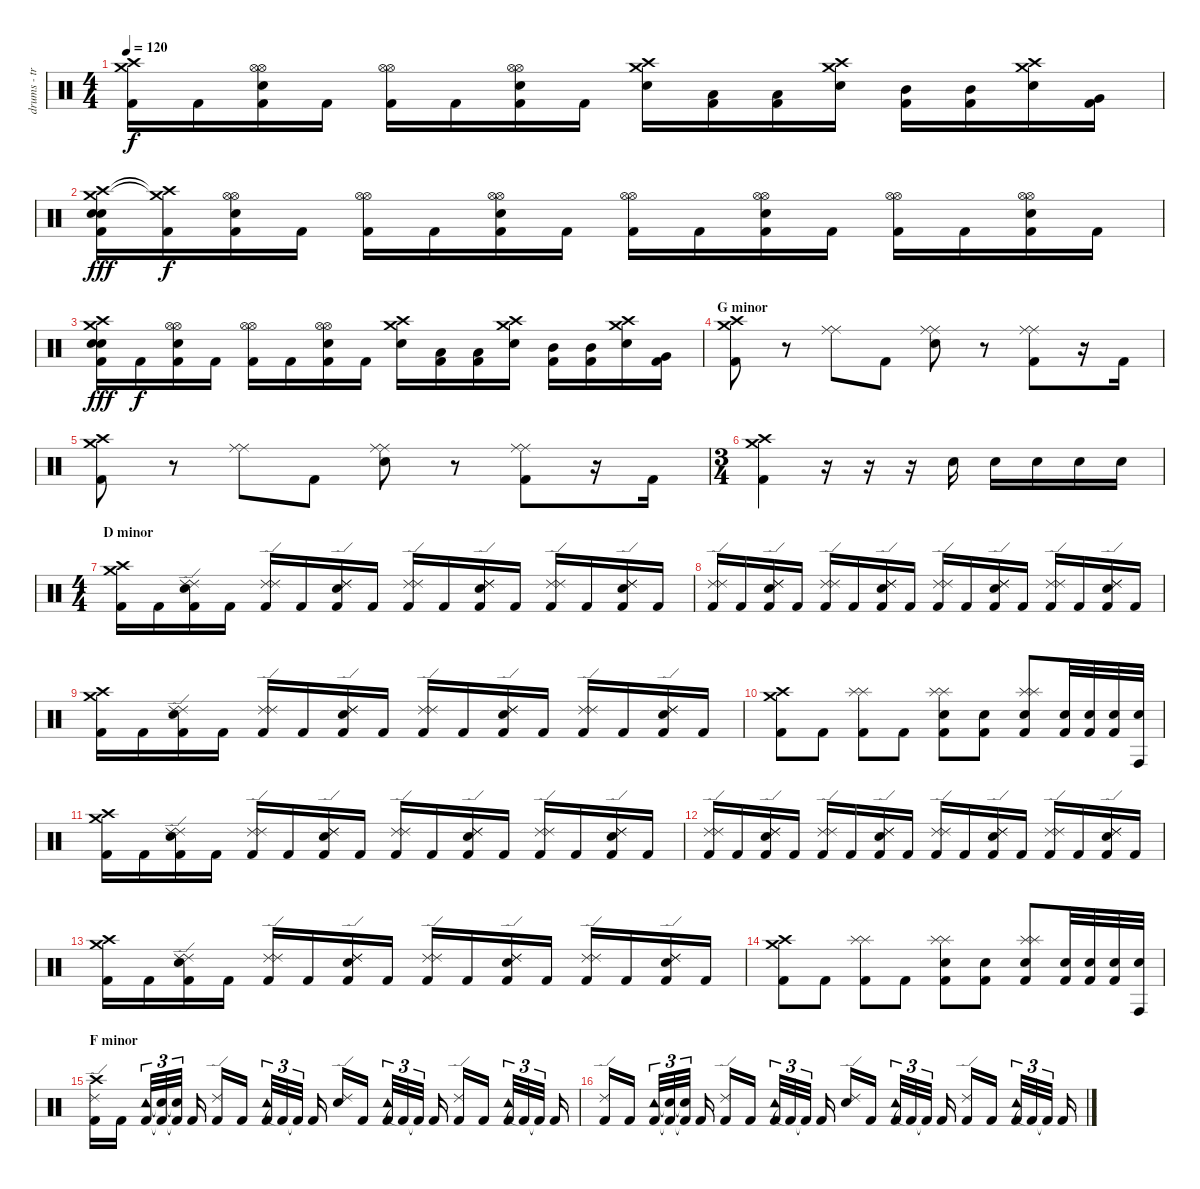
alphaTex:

\track ("drums - trash and prog sections" "drums - tr") {instrument percussion}
\staff {score}
\articulation defaults
\ts (4 4)
\tempo 120
\clef neutral
\ks c
("Crash medium (hit)" "Crash high (hit)" "Kick (hit) 2").16{dy f} "Kick (hit) 2".16 ("Hi-Hat (open)" "Hi-Hat (open)" "Snare (hit) 2" "Kick (hit) 2").16 "Kick (hit) 2".16 ("Hi-Hat (open)" "Hi-Hat (open)" "Kick (hit) 2").16 "Kick (hit) 2".16 ("Hi-Hat (open)" "Hi-Hat (open)" "Snare (hit) 2" "Kick (hit) 2").16 "Kick (hit) 2".16 ("Crash medium (hit)" "Crash high (hit)" "Snare (hit) 2").16 ("Low Tom (hit)" "Kick (hit) 2").16 ("Low Tom (hit)" "Kick (hit) 2").16 ("Crash medium (hit)" "Crash high (hit)" "Snare (hit) 2").16 ("Mid Tom (hit)" "Kick (hit) 2").16 ("Mid Tom (hit)" "Kick (hit) 2").16 ("Crash medium (hit)" "Crash high (hit)" "Snare (hit) 2").16 ("Very Low Tom (hit)" "Kick (hit) 2").16 |
("Crash medium (hit)" "Crash high (hit)" "Snare (hit) 2" "Electric Snare (hit)" "Kick (hit) 2").16{dy fff} ("Crash medium (hit)"{t} "Crash high (hit)"{t} "Kick (hit) 2").16{dy f} ("Hi-Hat (open)" "Hi-Hat (open)" "Snare (hit) 2" "Kick (hit) 2").16 "Kick (hit) 2".16 ("Hi-Hat (open)" "Hi-Hat (open)" "Kick (hit) 2").16 "Kick (hit) 2".16 ("Hi-Hat (open)" "Hi-Hat (open)" "Snare (hit) 2" "Kick (hit) 2").16 "Kick (hit) 2".16 ("Hi-Hat (open)" "Hi-Hat (open)" "Kick (hit) 2").16 "Kick (hit) 2".16 ("Hi-Hat (open)" "Hi-Hat (open)" "Snare (hit) 2" "Kick (hit) 2").16 "Kick (hit) 2".16 ("Hi-Hat (open)" "Hi-Hat (open)" "Kick (hit) 2").16 "Kick (hit) 2".16 ("Hi-Hat (open)" "Hi-Hat (open)" "Snare (hit) 2" "Kick (hit) 2").16 "Kick (hit) 2".16 |
("Crash medium (hit)" "Crash high (hit)" "Snare (hit) 2" "Electric Snare (hit)" "Kick (hit) 2").16{dy fff} "Kick (hit) 2".16{dy f} ("Hi-Hat (open)" "Hi-Hat (open)" "Snare (hit) 2" "Kick (hit) 2").16 "Kick (hit) 2".16 ("Hi-Hat (open)" "Hi-Hat (open)" "Kick (hit) 2").16 "Kick (hit) 2".16 ("Hi-Hat (open)" "Hi-Hat (open)" "Snare (hit) 2" "Kick (hit) 2").16 "Kick (hit) 2".16 ("Crash medium (hit)" "Crash high (hit)" "Snare (hit) 2").16 ("Low Tom (hit)" "Kick (hit) 2").16 ("Low Tom (hit)" "Kick (hit) 2").16 ("Crash medium (hit)" "Crash high (hit)" "Snare (hit) 2").16 ("Mid Tom (hit)" "Kick (hit) 2").16 ("Mid Tom (hit)" "Kick (hit) 2").16 ("Crash medium (hit)" "Crash high (hit)" "Snare (hit) 2").16 ("Very Low Tom (hit)" "Kick (hit) 2").16 |
\section ("" "G minor")
("Crash medium (hit)" "Crash high (hit)" "Kick (hit) 2").8 r.8 ("Ride (middle)" "Ride (middle)").8 "Kick (hit) 2".8 ("Ride (middle)" "Ride (middle)" "Snare (hit) 2").8 r.8 ("Ride (middle)" "Ride (middle)" "Kick (hit) 2").8 r.16 "Kick (hit) 2".16 |
("Crash medium (hit)" "Crash high (hit)" "Kick (hit) 2").8 r.8 ("Ride (middle)" "Ride (middle)").8 "Kick (hit) 2".8 ("Ride (middle)" "Ride (middle)" "Snare (hit) 2").8 r.8 ("Ride (middle)" "Ride (middle)" "Kick (hit) 2").8 r.16 "Kick (hit) 2".16 |
\ts (3 4)
("Crash medium (hit)" "Crash high (hit)" "Kick (hit) 2").4 r.16 r.16 r.16 "Snare (hit) 2".16 "Snare (hit) 2".16 "Snare (hit) 2".16 "Snare (hit) 2".16 "Snare (hit) 2".16 |
\ts (4 4)
\section ("" "D minor")
("Crash medium (hit)" "Crash high (hit)" "Kick (hit) 2").16 "Kick (hit) 2".16 ("Ride (edge) 2" "Ride (edge) 2" "Snare (hit) 2" "Kick (hit) 2").16 "Kick (hit) 2".16 ("Ride (edge) 2" "Ride (edge) 2" "Kick (hit) 2").16 "Kick (hit) 2".16 ("Ride (edge) 2" "Ride (edge) 2" "Snare (hit) 2" "Kick (hit) 2").16 "Kick (hit) 2".16 ("Ride (edge) 2" "Ride (edge) 2" "Kick (hit) 2").16 "Kick (hit) 2".16 ("Ride (edge) 2" "Ride (edge) 2" "Snare (hit) 2" "Kick (hit) 2").16 "Kick (hit) 2".16 ("Ride (edge) 2" "Ride (edge) 2" "Kick (hit) 2").16 "Kick (hit) 2".16 ("Ride (edge) 2" "Ride (edge) 2" "Snare (hit) 2" "Kick (hit) 2").16 "Kick (hit) 2".16 |
("Ride (edge) 2" "Ride (edge) 2" "Kick (hit) 2").16 "Kick (hit) 2".16 ("Ride (edge) 2" "Ride (edge) 2" "Snare (hit) 2" "Kick (hit) 2").16 "Kick (hit) 2".16 ("Ride (edge) 2" "Ride (edge) 2" "Kick (hit) 2").16 "Kick (hit) 2".16 ("Ride (edge) 2" "Ride (edge) 2" "Snare (hit) 2" "Kick (hit) 2").16 "Kick (hit) 2".16 ("Ride (edge) 2" "Ride (edge) 2" "Kick (hit) 2").16 "Kick (hit) 2".16 ("Ride (edge) 2" "Ride (edge) 2" "Snare (hit) 2" "Kick (hit) 2").16 "Kick (hit) 2".16 ("Ride (edge) 2" "Ride (edge) 2" "Kick (hit) 2").16 "Kick (hit) 2".16 ("Ride (edge) 2" "Ride (edge) 2" "Snare (hit) 2" "Kick (hit) 2").16 "Kick (hit) 2".16 |
("Crash medium (hit)" "Crash high (hit)" "Kick (hit) 2").16 "Kick (hit) 2".16 ("Ride (edge) 2" "Ride (edge) 2" "Snare (hit) 2" "Kick (hit) 2").16 "Kick (hit) 2".16 ("Ride (edge) 2" "Ride (edge) 2" "Kick (hit) 2").16 "Kick (hit) 2".16 ("Ride (edge) 2" "Ride (edge) 2" "Snare (hit) 2" "Kick (hit) 2").16 "Kick (hit) 2".16 ("Ride (edge) 2" "Ride (edge) 2" "Kick (hit) 2").16 "Kick (hit) 2".16 ("Ride (edge) 2" "Ride (edge) 2" "Snare (hit) 2" "Kick (hit) 2").16 "Kick (hit) 2".16 ("Ride (edge) 2" "Ride (edge) 2" "Kick (hit) 2").16 "Kick (hit) 2".16 ("Ride (edge) 2" "Ride (edge) 2" "Snare (hit) 2" "Kick (hit) 2").16 "Kick (hit) 2".16 |
("Crash medium (hit)" "Crash high (hit)" "Kick (hit) 2").8 "Kick (hit) 2".8 ("Splash (hit)" "Splash (hit)" "Kick (hit) 2").8 "Kick (hit) 2".8 ("Splash (hit)" "Splash (hit)" "Snare (hit) 2" "Kick (hit) 2").8 ("Snare (hit) 2" "Kick (hit) 2").8 ("Splash (hit)" "Splash (hit)" "Snare (hit) 2" "Kick (hit) 2").8 ("Snare (hit) 2" "Kick (hit) 2").32 ("Snare (hit) 2" "Kick (hit) 2").32 ("Snare (hit) 2" "Kick (hit) 2").32 ("Snare (hit) 2" "Conga high (hit)").32 |
("Crash medium (hit)" "Crash high (hit)" "Kick (hit) 2").16 "Kick (hit) 2".16 ("Ride (edge) 2" "Ride (edge) 2" "Snare (hit) 2" "Kick (hit) 2").16 "Kick (hit) 2".16 ("Ride (edge) 2" "Ride (edge) 2" "Kick (hit) 2").16 "Kick (hit) 2".16 ("Ride (edge) 2" "Ride (edge) 2" "Snare (hit) 2" "Kick (hit) 2").16 "Kick (hit) 2".16 ("Ride (edge) 2" "Ride (edge) 2" "Kick (hit) 2").16 "Kick (hit) 2".16 ("Ride (edge) 2" "Ride (edge) 2" "Snare (hit) 2" "Kick (hit) 2").16 "Kick (hit) 2".16 ("Ride (edge) 2" "Ride (edge) 2" "Kick (hit) 2").16 "Kick (hit) 2".16 ("Ride (edge) 2" "Ride (edge) 2" "Snare (hit) 2" "Kick (hit) 2").16 "Kick (hit) 2".16 |
("Ride (edge) 2" "Ride (edge) 2" "Kick (hit) 2").16 "Kick (hit) 2".16 ("Ride (edge) 2" "Ride (edge) 2" "Snare (hit) 2" "Kick (hit) 2").16 "Kick (hit) 2".16 ("Ride (edge) 2" "Ride (edge) 2" "Kick (hit) 2").16 "Kick (hit) 2".16 ("Ride (edge) 2" "Ride (edge) 2" "Snare (hit) 2" "Kick (hit) 2").16 "Kick (hit) 2".16 ("Ride (edge) 2" "Ride (edge) 2" "Kick (hit) 2").16 "Kick (hit) 2".16 ("Ride (edge) 2" "Ride (edge) 2" "Snare (hit) 2" "Kick (hit) 2").16 "Kick (hit) 2".16 ("Ride (edge) 2" "Ride (edge) 2" "Kick (hit) 2").16 "Kick (hit) 2".16 ("Ride (edge) 2" "Ride (edge) 2" "Snare (hit) 2" "Kick (hit) 2").16 "Kick (hit) 2".16 |
("Crash medium (hit)" "Crash high (hit)" "Kick (hit) 2").16 "Kick (hit) 2".16 ("Ride (edge) 2" "Ride (edge) 2" "Snare (hit) 2" "Kick (hit) 2").16 "Kick (hit) 2".16 ("Ride (edge) 2" "Ride (edge) 2" "Kick (hit) 2").16 "Kick (hit) 2".16 ("Ride (edge) 2" "Ride (edge) 2" "Snare (hit) 2" "Kick (hit) 2").16 "Kick (hit) 2".16 ("Ride (edge) 2" "Ride (edge) 2" "Kick (hit) 2").16 "Kick (hit) 2".16 ("Ride (edge) 2" "Ride (edge) 2" "Snare (hit) 2" "Kick (hit) 2").16 "Kick (hit) 2".16 ("Ride (edge) 2" "Ride (edge) 2" "Kick (hit) 2").16 "Kick (hit) 2".16 ("Ride (edge) 2" "Ride (edge) 2" "Snare (hit) 2" "Kick (hit) 2").16 "Kick (hit) 2".16 |
("Crash medium (hit)" "Crash high (hit)" "Kick (hit) 2").8 "Kick (hit) 2".8 ("Splash (hit)" "Splash (hit)" "Kick (hit) 2").8 "Kick (hit) 2".8 ("Splash (hit)" "Splash (hit)" "Snare (hit) 2" "Kick (hit) 2").8 ("Snare (hit) 2" "Kick (hit) 2").8 ("Splash (hit)" "Splash (hit)" "Snare (hit) 2" "Kick (hit) 2").8 ("Snare (hit) 2" "Kick (hit) 2").32 ("Snare (hit) 2" "Kick (hit) 2").32 ("Snare (hit) 2" "Kick (hit) 2").32 ("Snare (hit) 2" "Conga high (hit)").32 |
\section ("" "F minor")
("Crash high (hit)" "Ride (edge) 2" "Kick (hit) 2").16 "Kick (hit) 2".16 ("Tambourine (hit)" "Kick (hit) 2").32{tu (3 2)} ("Snare (hit)"{t} "Kick (hit) 2"{t}).32{tu (3 2)} ("Snare (hit)"{t} "Kick (hit) 2"{t}).32{tu (3 2)} "Kick (hit) 2".16 ("Ride (edge) 2" "Kick (hit) 2").16 "Kick (hit) 2".16 ("Tambourine (hit)" "Kick (hit) 2").32{tu (3 2)} "Kick (hit) 2"{t}.32{tu (3 2)} "Kick (hit) 2"{t}.32{tu (3 2)} "Kick (hit) 2".16 ("Snare (hit) 2" "Ride (edge) 2").16 "Kick (hit) 2".16 ("Tambourine (hit)" "Kick (hit) 2").32{tu (3 2)} "Kick (hit) 2"{t}.32{tu (3 2)} "Kick (hit) 2"{t}.32{tu (3 2)} "Kick (hit) 2".16 ("Ride (edge) 2" "Kick (hit) 2").16 "Kick (hit) 2".16 ("Tambourine (hit)" "Kick (hit) 2").32{tu (3 2)} "Kick (hit) 2"{t}.32{tu (3 2)} "Kick (hit) 2"{t}.32{tu (3 2)} "Kick (hit) 2".16 |
("Ride (edge) 2" "Kick (hit) 2").16 "Kick (hit) 2".16 ("Tambourine (hit)" "Kick (hit) 2").32{tu (3 2)} ("Snare (hit)"{t} "Kick (hit) 2"{t}).32{tu (3 2)} ("Snare (hit)"{t} "Kick (hit) 2"{t}).32{tu (3 2)} "Kick (hit) 2".16 ("Ride (edge) 2" "Kick (hit) 2").16 "Kick (hit) 2".16 ("Tambourine (hit)" "Kick (hit) 2").32{tu (3 2)} "Kick (hit) 2"{t}.32{tu (3 2)} "Kick (hit) 2"{t}.32{tu (3 2)} "Kick (hit) 2".16 ("Snare (hit) 2" "Ride (edge) 2").16 "Kick (hit) 2".16 ("Tambourine (hit)" "Kick (hit) 2").32{tu (3 2)} "Kick (hit) 2"{t}.32{tu (3 2)} "Kick (hit) 2"{t}.32{tu (3 2)} "Kick (hit) 2".16 ("Ride (edge) 2" "Kick (hit) 2").16 "Kick (hit) 2".16 ("Tambourine (hit)" "Kick (hit) 2").32{tu (3 2)} "Kick (hit) 2"{t}.32{tu (3 2)} "Kick (hit) 2"{t}.32{tu (3 2)} "Kick (hit) 2".16
